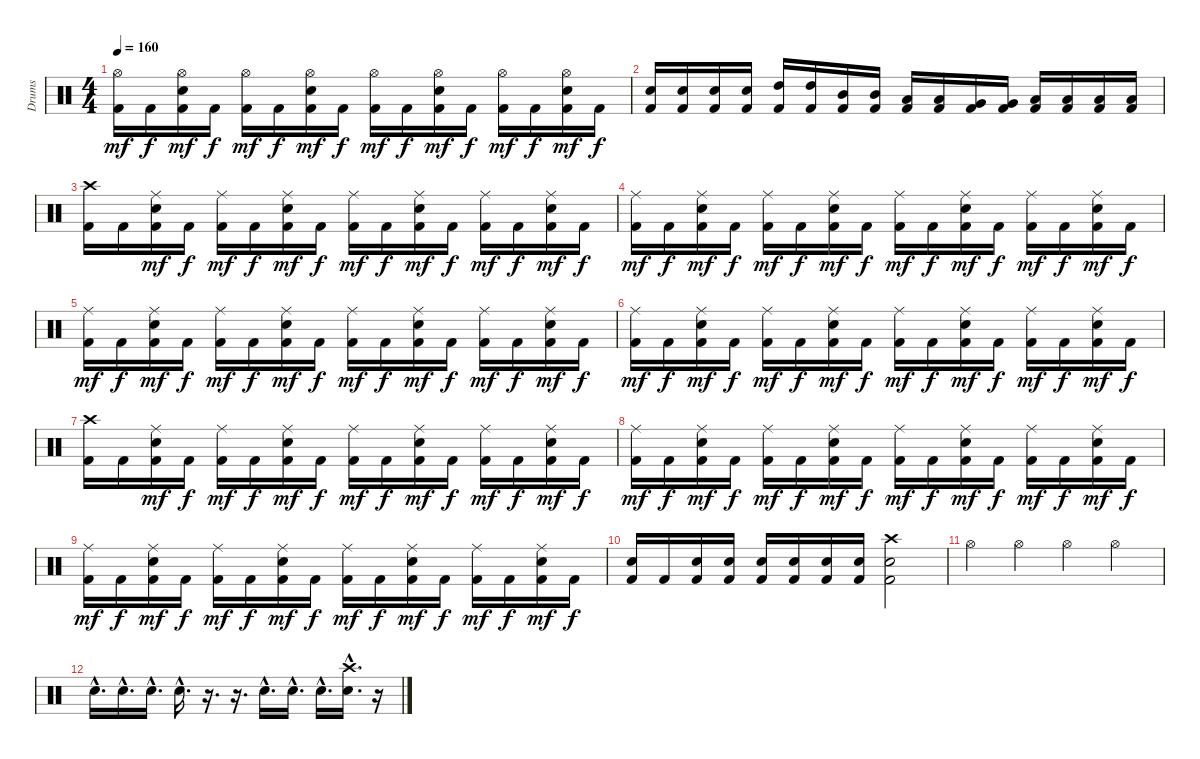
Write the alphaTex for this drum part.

\track ("Drums" "Drums") {instrument percussion}
\staff {score}
\articulation defaults
\ts (4 4)
\tempo 160
\clef neutral
\ks c
("Hi-Hat (open)" "Kick (hit) 2").16{dy mf} "Kick (hit) 2".16{dy f} ("Hi-Hat (open)" "Electric Snare (hit)" "Kick (hit) 2").16{dy mf} "Kick (hit) 2".16{dy f} ("Hi-Hat (open)" "Kick (hit) 2").16{dy mf} "Kick (hit) 2".16{dy f} ("Hi-Hat (open)" "Electric Snare (hit)" "Kick (hit) 2").16{dy mf} "Kick (hit) 2".16{dy f} ("Hi-Hat (open)" "Kick (hit) 2").16{dy mf} "Kick (hit) 2".16{dy f} ("Hi-Hat (open)" "Electric Snare (hit)" "Kick (hit) 2").16{dy mf} "Kick (hit) 2".16{dy f} ("Hi-Hat (open)" "Kick (hit) 2").16{dy mf} "Kick (hit) 2".16{dy f} ("Hi-Hat (open)" "Electric Snare (hit)" "Kick (hit) 2").16{dy mf} "Kick (hit) 2".16{dy f} |
("Electric Snare (hit)" "Kick (hit) 2").16 ("Electric Snare (hit)" "Kick (hit) 2").16 ("Electric Snare (hit)" "Kick (hit) 2").16 ("Electric Snare (hit)" "Kick (hit) 2").16 ("High Tom (hit)" "Kick (hit) 2").16 ("High Tom (hit)" "Kick (hit) 2").16 ("Mid Tom (hit)" "Kick (hit) 2").16 ("Mid Tom (hit)" "Kick (hit) 2").16 ("Low Tom (hit)" "Kick (hit) 2").16 ("Low Tom (hit)" "Kick (hit) 2").16 ("Very Low Tom (hit)" "Kick (hit) 2").16 ("Very Low Tom (hit)" "Kick (hit) 2").16 ("Low Floor Tom (hit)" "Kick (hit) 2").16 ("Low Floor Tom (hit)" "Kick (hit) 2").16 ("Low Floor Tom (hit)" "Kick (hit) 2").16 ("Low Floor Tom (hit)" "Kick (hit) 2").16 |
("Crash high (hit)" "Kick (hit) 2").16 "Kick (hit) 2".16 ("Ride (middle)" "Electric Snare (hit)" "Kick (hit) 2").16{dy mf} "Kick (hit) 2".16{dy f} ("Ride (middle)" "Kick (hit) 2").16{dy mf} "Kick (hit) 2".16{dy f} ("Ride (middle)" "Electric Snare (hit)" "Kick (hit) 2").16{dy mf} "Kick (hit) 2".16{dy f} ("Ride (middle)" "Kick (hit) 2").16{dy mf} "Kick (hit) 2".16{dy f} ("Ride (middle)" "Electric Snare (hit)" "Kick (hit) 2").16{dy mf} "Kick (hit) 2".16{dy f} ("Ride (middle)" "Kick (hit) 2").16{dy mf} "Kick (hit) 2".16{dy f} ("Ride (middle)" "Electric Snare (hit)" "Kick (hit) 2").16{dy mf} "Kick (hit) 2".16{dy f} |
("Ride (middle)" "Kick (hit) 2").16{dy mf} "Kick (hit) 2".16{dy f} ("Ride (middle)" "Electric Snare (hit)" "Kick (hit) 2").16{dy mf} "Kick (hit) 2".16{dy f} ("Ride (middle)" "Kick (hit) 2").16{dy mf} "Kick (hit) 2".16{dy f} ("Ride (middle)" "Electric Snare (hit)" "Kick (hit) 2").16{dy mf} "Kick (hit) 2".16{dy f} ("Ride (middle)" "Kick (hit) 2").16{dy mf} "Kick (hit) 2".16{dy f} ("Ride (middle)" "Electric Snare (hit)" "Kick (hit) 2").16{dy mf} "Kick (hit) 2".16{dy f} ("Ride (middle)" "Kick (hit) 2").16{dy mf} "Kick (hit) 2".16{dy f} ("Ride (middle)" "Electric Snare (hit)" "Kick (hit) 2").16{dy mf} "Kick (hit) 2".16{dy f} |
("Ride (middle)" "Kick (hit) 2").16{dy mf} "Kick (hit) 2".16{dy f} ("Ride (middle)" "Electric Snare (hit)" "Kick (hit) 2").16{dy mf} "Kick (hit) 2".16{dy f} ("Ride (middle)" "Kick (hit) 2").16{dy mf} "Kick (hit) 2".16{dy f} ("Ride (middle)" "Electric Snare (hit)" "Kick (hit) 2").16{dy mf} "Kick (hit) 2".16{dy f} ("Ride (middle)" "Kick (hit) 2").16{dy mf} "Kick (hit) 2".16{dy f} ("Ride (middle)" "Electric Snare (hit)" "Kick (hit) 2").16{dy mf} "Kick (hit) 2".16{dy f} ("Ride (middle)" "Kick (hit) 2").16{dy mf} "Kick (hit) 2".16{dy f} ("Ride (middle)" "Electric Snare (hit)" "Kick (hit) 2").16{dy mf} "Kick (hit) 2".16{dy f} |
("Ride (middle)" "Kick (hit) 2").16{dy mf} "Kick (hit) 2".16{dy f} ("Ride (middle)" "Electric Snare (hit)" "Kick (hit) 2").16{dy mf} "Kick (hit) 2".16{dy f} ("Ride (middle)" "Kick (hit) 2").16{dy mf} "Kick (hit) 2".16{dy f} ("Ride (middle)" "Electric Snare (hit)" "Kick (hit) 2").16{dy mf} "Kick (hit) 2".16{dy f} ("Ride (middle)" "Kick (hit) 2").16{dy mf} "Kick (hit) 2".16{dy f} ("Ride (middle)" "Electric Snare (hit)" "Kick (hit) 2").16{dy mf} "Kick (hit) 2".16{dy f} ("Ride (middle)" "Kick (hit) 2").16{dy mf} "Kick (hit) 2".16{dy f} ("Ride (middle)" "Electric Snare (hit)" "Kick (hit) 2").16{dy mf} "Kick (hit) 2".16{dy f} |
("Crash high (hit)" "Kick (hit) 2").16 "Kick (hit) 2".16 ("Ride (middle)" "Electric Snare (hit)" "Kick (hit) 2").16{dy mf} "Kick (hit) 2".16{dy f} ("Ride (middle)" "Kick (hit) 2").16{dy mf} "Kick (hit) 2".16{dy f} ("Ride (middle)" "Electric Snare (hit)" "Kick (hit) 2").16{dy mf} "Kick (hit) 2".16{dy f} ("Ride (middle)" "Kick (hit) 2").16{dy mf} "Kick (hit) 2".16{dy f} ("Ride (middle)" "Electric Snare (hit)" "Kick (hit) 2").16{dy mf} "Kick (hit) 2".16{dy f} ("Ride (middle)" "Kick (hit) 2").16{dy mf} "Kick (hit) 2".16{dy f} ("Ride (middle)" "Electric Snare (hit)" "Kick (hit) 2").16{dy mf} "Kick (hit) 2".16{dy f} |
("Ride (middle)" "Kick (hit) 2").16{dy mf} "Kick (hit) 2".16{dy f} ("Ride (middle)" "Electric Snare (hit)" "Kick (hit) 2").16{dy mf} "Kick (hit) 2".16{dy f} ("Ride (middle)" "Kick (hit) 2").16{dy mf} "Kick (hit) 2".16{dy f} ("Ride (middle)" "Electric Snare (hit)" "Kick (hit) 2").16{dy mf} "Kick (hit) 2".16{dy f} ("Ride (middle)" "Kick (hit) 2").16{dy mf} "Kick (hit) 2".16{dy f} ("Ride (middle)" "Electric Snare (hit)" "Kick (hit) 2").16{dy mf} "Kick (hit) 2".16{dy f} ("Ride (middle)" "Kick (hit) 2").16{dy mf} "Kick (hit) 2".16{dy f} ("Ride (middle)" "Electric Snare (hit)" "Kick (hit) 2").16{dy mf} "Kick (hit) 2".16{dy f} |
("Ride (middle)" "Kick (hit) 2").16{dy mf} "Kick (hit) 2".16{dy f} ("Ride (middle)" "Electric Snare (hit)" "Kick (hit) 2").16{dy mf} "Kick (hit) 2".16{dy f} ("Ride (middle)" "Kick (hit) 2").16{dy mf} "Kick (hit) 2".16{dy f} ("Ride (middle)" "Electric Snare (hit)" "Kick (hit) 2").16{dy mf} "Kick (hit) 2".16{dy f} ("Ride (middle)" "Kick (hit) 2").16{dy mf} "Kick (hit) 2".16{dy f} ("Ride (middle)" "Electric Snare (hit)" "Kick (hit) 2").16{dy mf} "Kick (hit) 2".16{dy f} ("Ride (middle)" "Kick (hit) 2").16{dy mf} "Kick (hit) 2".16{dy f} ("Ride (middle)" "Electric Snare (hit)" "Kick (hit) 2").16{dy mf} "Kick (hit) 2".16{dy f} |
("Electric Snare (hit)" "Kick (hit) 2").16 "Kick (hit) 2".16 ("Electric Snare (hit)" "Kick (hit) 2").16 ("Electric Snare (hit)" "Kick (hit) 2").16 ("Electric Snare (hit)" "Kick (hit) 2").16 ("Electric Snare (hit)" "Kick (hit) 2").16 ("Electric Snare (hit)" "Kick (hit) 2").16 ("Electric Snare (hit)" "Kick (hit) 2").16 ("Crash high (hit)" "Electric Snare (hit)" "Kick (hit) 2").2 |
"Hi-Hat (open)".4 "Hi-Hat (open)".4 "Hi-Hat (open)".4 "Hi-Hat (open)".4 |
"Electric Snare (hit)"{hac}.16{d} "Electric Snare (hit)"{hac}.16{d} "Electric Snare (hit)"{hac}.16{d} "Electric Snare (hit)"{hac}.16{d} r.16{d} r.16{d} "Electric Snare (hit)"{hac}.16{d} "Electric Snare (hit)"{hac}.16{d} "Electric Snare (hit)"{hac}.16{d} ("Crash high (hit)"{hac} "Electric Snare (hit)"{hac}).16{d} r.16
